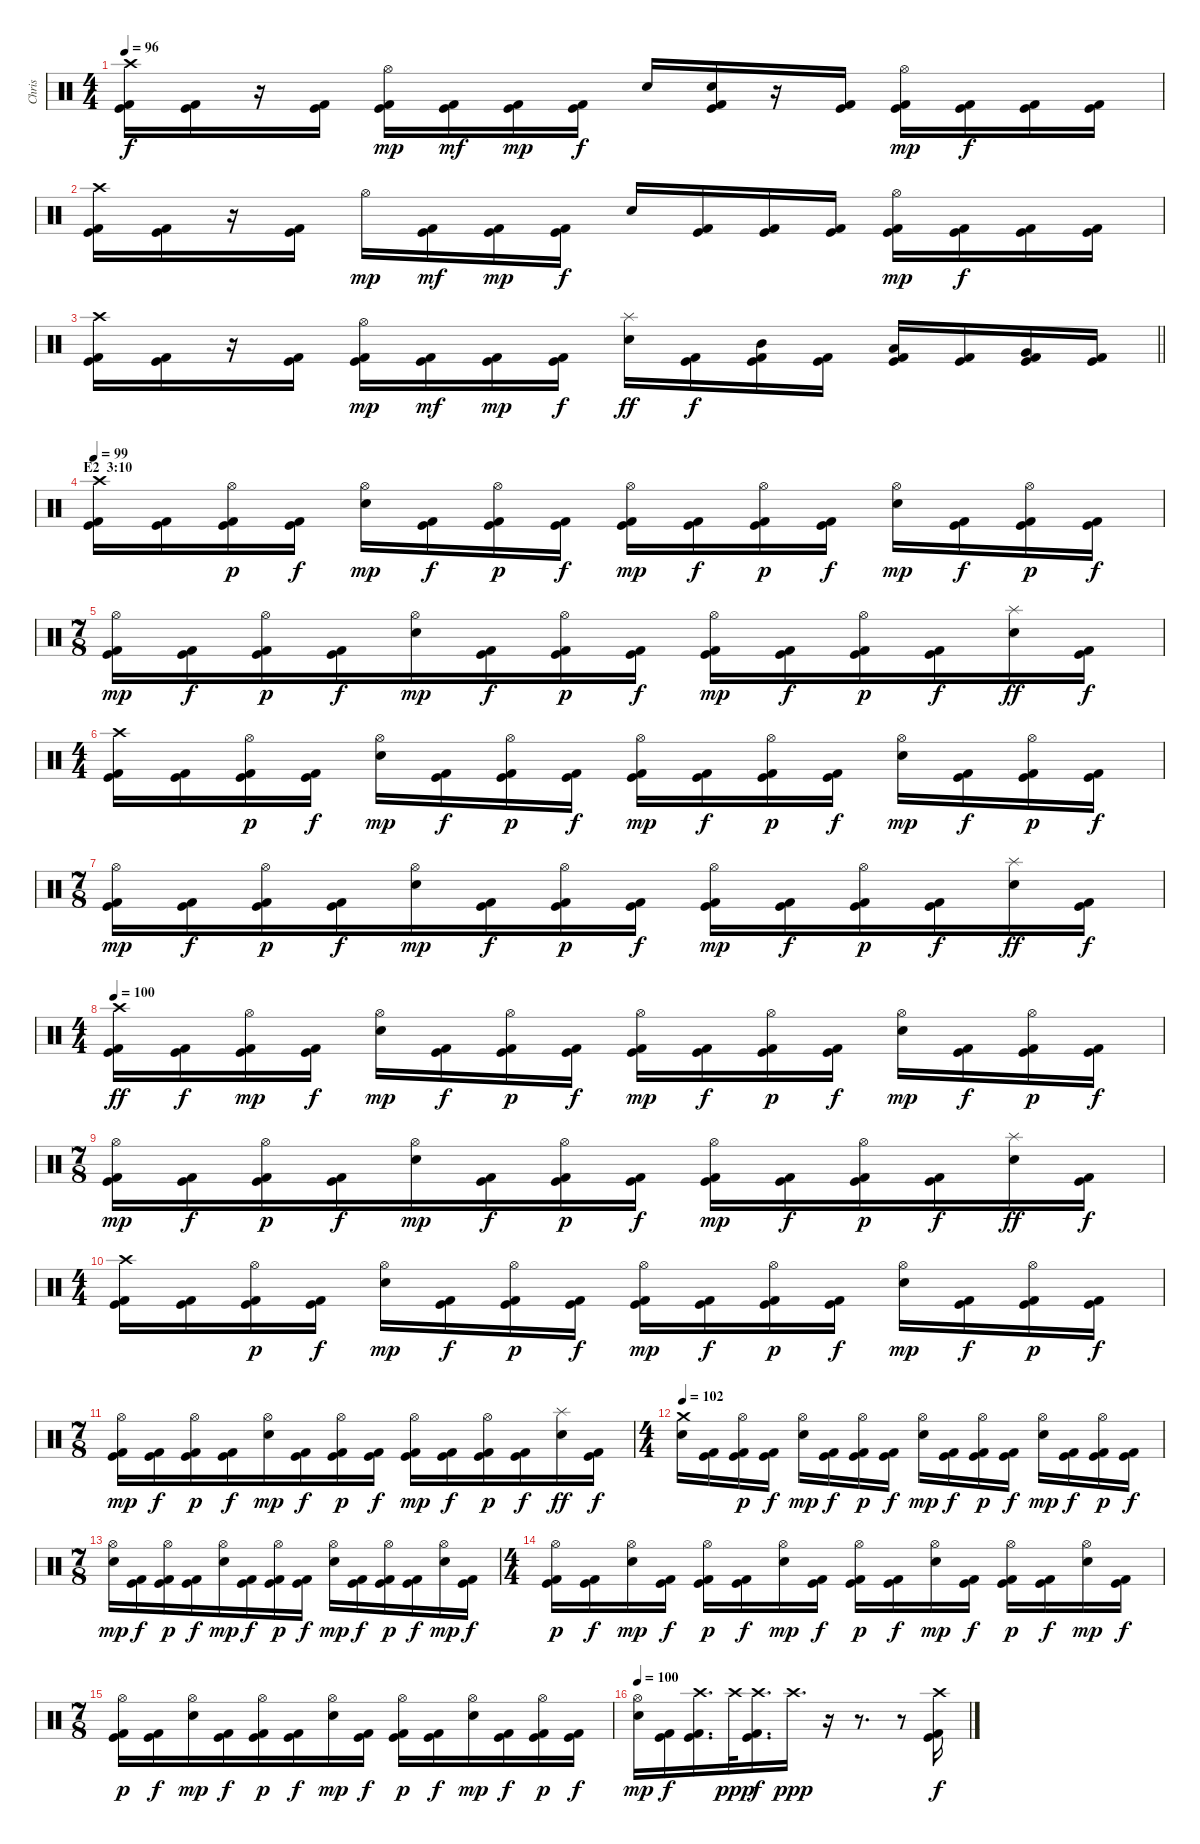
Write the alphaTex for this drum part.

\track ("Chris" "Chris") {instrument percussion}
\staff {score}
\articulation defaults
\ts (4 4)
\tempo 96
\clef neutral
\ks c
("Crash high (hit)" "Kick (hit)" "Kick (hit) 2").16{dy f} ("Kick (hit)" "Kick (hit) 2").16 r.16 ("Kick (hit)" "Kick (hit) 2").16 ("Hi-Hat (open)" "Kick (hit)" "Kick (hit) 2").16{dy mp} ("Kick (hit)" "Kick (hit) 2").16{dy mf} ("Kick (hit)" "Kick (hit) 2").16{dy mp} ("Kick (hit)" "Kick (hit) 2").16{dy f} "Electric Snare (hit)".16 ("Electric Snare (hit)" "Kick (hit)" "Kick (hit) 2").16{bd 30} r.16 ("Kick (hit)" "Kick (hit) 2").16 ("Hi-Hat (open)" "Kick (hit)" "Kick (hit) 2").16{dy mp} ("Kick (hit)" "Kick (hit) 2").16{dy f} ("Kick (hit)" "Kick (hit) 2").16 ("Kick (hit)" "Kick (hit) 2").16 |
("Crash high (hit)" "Kick (hit)" "Kick (hit) 2").16 ("Kick (hit)" "Kick (hit) 2").16 r.16 ("Kick (hit)" "Kick (hit) 2").16 "Hi-Hat (open)".16{dy mp} ("Kick (hit)" "Kick (hit) 2").16{dy mf} ("Kick (hit)" "Kick (hit) 2").16{dy mp} ("Kick (hit)" "Kick (hit) 2").16{dy f} "Electric Snare (hit)".16 ("Kick (hit)" "Kick (hit) 2").16 ("Kick (hit)" "Kick (hit) 2").16 ("Kick (hit)" "Kick (hit) 2").16 ("Hi-Hat (open)" "Kick (hit)" "Kick (hit) 2").16{dy mp} ("Kick (hit)" "Kick (hit) 2").16{dy f} ("Kick (hit)" "Kick (hit) 2").16 ("Kick (hit)" "Kick (hit) 2").16 |
\barLineRight lightlight
("Crash high (hit)" "Kick (hit)" "Kick (hit) 2").16 ("Kick (hit)" "Kick (hit) 2").16 r.16 ("Kick (hit)" "Kick (hit) 2").16 ("Hi-Hat (open)" "Kick (hit)" "Kick (hit) 2").16{dy mp} ("Kick (hit)" "Kick (hit) 2").16{dy mf} ("Kick (hit)" "Kick (hit) 2").16{dy mp} ("Kick (hit)" "Kick (hit) 2").16{dy f} ("Splash (hit)" "Electric Snare (hit)").16{dy ff} ("Kick (hit)" "Kick (hit) 2").16{dy f} ("Mid Tom (hit)" "Kick (hit)" "Kick (hit) 2").16 ("Kick (hit)" "Kick (hit) 2").16 ("Low Tom (hit)" "Kick (hit)" "Kick (hit) 2").16 ("Kick (hit)" "Kick (hit) 2").16 ("Very Low Tom (hit)" "Kick (hit)" "Kick (hit) 2").16 ("Kick (hit)" "Kick (hit) 2").16 |
\section ("" "E2  3:10")
\tempo 99
("Crash high (hit)" "Kick (hit)" "Kick (hit) 2").16 ("Kick (hit)" "Kick (hit) 2").16 ("Hi-Hat (open)" "Kick (hit)" "Kick (hit) 2").16{dy p} ("Kick (hit)" "Kick (hit) 2").16{dy f} ("Hi-Hat (open)" "Electric Snare (hit)").16{dy mp} ("Kick (hit)" "Kick (hit) 2").16{dy f} ("Hi-Hat (open)" "Kick (hit)" "Kick (hit) 2").16{dy p} ("Kick (hit)" "Kick (hit) 2").16{dy f} ("Hi-Hat (open)" "Kick (hit)" "Kick (hit) 2").16{dy mp} ("Kick (hit)" "Kick (hit) 2").16{dy f} ("Hi-Hat (open)" "Kick (hit)" "Kick (hit) 2").16{dy p} ("Kick (hit)" "Kick (hit) 2").16{dy f} ("Hi-Hat (open)" "Electric Snare (hit)").16{dy mp} ("Kick (hit)" "Kick (hit) 2").16{dy f} ("Hi-Hat (open)" "Kick (hit)" "Kick (hit) 2").16{dy p} ("Kick (hit)" "Kick (hit) 2").16{dy f} |
\ts (7 8)
("Hi-Hat (open)" "Kick (hit)" "Kick (hit) 2").16{dy mp} ("Kick (hit)" "Kick (hit) 2").16{dy f} ("Hi-Hat (open)" "Kick (hit)" "Kick (hit) 2").16{dy p} ("Kick (hit)" "Kick (hit) 2").16{dy f} ("Hi-Hat (open)" "Electric Snare (hit)").16{dy mp} ("Kick (hit)" "Kick (hit) 2").16{dy f} ("Hi-Hat (open)" "Kick (hit)" "Kick (hit) 2").16{dy p} ("Kick (hit)" "Kick (hit) 2").16{dy f} ("Hi-Hat (open)" "Kick (hit)" "Kick (hit) 2").16{dy mp} ("Kick (hit)" "Kick (hit) 2").16{dy f} ("Hi-Hat (open)" "Kick (hit)" "Kick (hit) 2").16{dy p} ("Kick (hit)" "Kick (hit) 2").16{dy f} ("Splash (hit)" "Electric Snare (hit)").16{dy ff} ("Kick (hit)" "Kick (hit) 2").16{dy f} |
\ts (4 4)
("Crash high (hit)" "Kick (hit)" "Kick (hit) 2").16 ("Kick (hit)" "Kick (hit) 2").16 ("Hi-Hat (open)" "Kick (hit)" "Kick (hit) 2").16{dy p} ("Kick (hit)" "Kick (hit) 2").16{dy f} ("Hi-Hat (open)" "Electric Snare (hit)").16{dy mp} ("Kick (hit)" "Kick (hit) 2").16{dy f} ("Hi-Hat (open)" "Kick (hit)" "Kick (hit) 2").16{dy p} ("Kick (hit)" "Kick (hit) 2").16{dy f} ("Hi-Hat (open)" "Kick (hit)" "Kick (hit) 2").16{dy mp} ("Kick (hit)" "Kick (hit) 2").16{dy f} ("Hi-Hat (open)" "Kick (hit)" "Kick (hit) 2").16{dy p} ("Kick (hit)" "Kick (hit) 2").16{dy f} ("Hi-Hat (open)" "Electric Snare (hit)").16{dy mp} ("Kick (hit)" "Kick (hit) 2").16{dy f} ("Hi-Hat (open)" "Kick (hit)" "Kick (hit) 2").16{dy p} ("Kick (hit)" "Kick (hit) 2").16{dy f} |
\ts (7 8)
("Hi-Hat (open)" "Kick (hit)" "Kick (hit) 2").16{dy mp} ("Kick (hit)" "Kick (hit) 2").16{dy f} ("Hi-Hat (open)" "Kick (hit)" "Kick (hit) 2").16{dy p} ("Kick (hit)" "Kick (hit) 2").16{dy f} ("Hi-Hat (open)" "Electric Snare (hit)").16{dy mp} ("Kick (hit)" "Kick (hit) 2").16{dy f} ("Hi-Hat (open)" "Kick (hit)" "Kick (hit) 2").16{dy p} ("Kick (hit)" "Kick (hit) 2").16{dy f} ("Hi-Hat (open)" "Kick (hit)" "Kick (hit) 2").16{dy mp} ("Kick (hit)" "Kick (hit) 2").16{dy f} ("Hi-Hat (open)" "Kick (hit)" "Kick (hit) 2").16{dy p} ("Kick (hit)" "Kick (hit) 2").16{dy f} ("Splash (hit)" "Electric Snare (hit)").16{dy ff} ("Kick (hit)" "Kick (hit) 2").16{dy f} |
\ts (4 4)
\tempo 100
("Crash high (hit)" "Kick (hit)" "Kick (hit) 2").16{dy ff} ("Kick (hit)" "Kick (hit) 2").16{dy f} ("Hi-Hat (open)" "Kick (hit)" "Kick (hit) 2").16{dy mp} ("Kick (hit)" "Kick (hit) 2").16{dy f} ("Hi-Hat (open)" "Electric Snare (hit)").16{dy mp} ("Kick (hit)" "Kick (hit) 2").16{dy f} ("Hi-Hat (open)" "Kick (hit)" "Kick (hit) 2").16{dy p} ("Kick (hit)" "Kick (hit) 2").16{dy f} ("Hi-Hat (open)" "Kick (hit)" "Kick (hit) 2").16{dy mp} ("Kick (hit)" "Kick (hit) 2").16{dy f} ("Hi-Hat (open)" "Kick (hit)" "Kick (hit) 2").16{dy p} ("Kick (hit)" "Kick (hit) 2").16{dy f} ("Hi-Hat (open)" "Electric Snare (hit)").16{dy mp} ("Kick (hit)" "Kick (hit) 2").16{dy f} ("Hi-Hat (open)" "Kick (hit)" "Kick (hit) 2").16{dy p} ("Kick (hit)" "Kick (hit) 2").16{dy f} |
\ts (7 8)
("Hi-Hat (open)" "Kick (hit)" "Kick (hit) 2").16{dy mp} ("Kick (hit)" "Kick (hit) 2").16{dy f} ("Hi-Hat (open)" "Kick (hit)" "Kick (hit) 2").16{dy p} ("Kick (hit)" "Kick (hit) 2").16{dy f} ("Hi-Hat (open)" "Electric Snare (hit)").16{dy mp} ("Kick (hit)" "Kick (hit) 2").16{dy f} ("Hi-Hat (open)" "Kick (hit)" "Kick (hit) 2").16{dy p} ("Kick (hit)" "Kick (hit) 2").16{dy f} ("Hi-Hat (open)" "Kick (hit)" "Kick (hit) 2").16{dy mp} ("Kick (hit)" "Kick (hit) 2").16{dy f} ("Hi-Hat (open)" "Kick (hit)" "Kick (hit) 2").16{dy p} ("Kick (hit)" "Kick (hit) 2").16{dy f} ("Splash (hit)" "Electric Snare (hit)").16{dy ff} ("Kick (hit)" "Kick (hit) 2").16{dy f} |
\ts (4 4)
("Crash high (hit)" "Kick (hit)" "Kick (hit) 2").16 ("Kick (hit)" "Kick (hit) 2").16 ("Hi-Hat (open)" "Kick (hit)" "Kick (hit) 2").16{dy p} ("Kick (hit)" "Kick (hit) 2").16{dy f} ("Hi-Hat (open)" "Electric Snare (hit)").16{dy mp} ("Kick (hit)" "Kick (hit) 2").16{dy f} ("Hi-Hat (open)" "Kick (hit)" "Kick (hit) 2").16{dy p} ("Kick (hit)" "Kick (hit) 2").16{dy f} ("Hi-Hat (open)" "Kick (hit)" "Kick (hit) 2").16{dy mp} ("Kick (hit)" "Kick (hit) 2").16{dy f} ("Hi-Hat (open)" "Kick (hit)" "Kick (hit) 2").16{dy p} ("Kick (hit)" "Kick (hit) 2").16{dy f} ("Hi-Hat (open)" "Electric Snare (hit)").16{dy mp} ("Kick (hit)" "Kick (hit) 2").16{dy f} ("Hi-Hat (open)" "Kick (hit)" "Kick (hit) 2").16{dy p} ("Kick (hit)" "Kick (hit) 2").16{dy f} |
\ts (7 8)
("Hi-Hat (open)" "Kick (hit)" "Kick (hit) 2").16{dy mp} ("Kick (hit)" "Kick (hit) 2").16{dy f} ("Hi-Hat (open)" "Kick (hit)" "Kick (hit) 2").16{dy p} ("Kick (hit)" "Kick (hit) 2").16{dy f} ("Hi-Hat (open)" "Electric Snare (hit)").16{dy mp} ("Kick (hit)" "Kick (hit) 2").16{dy f} ("Hi-Hat (open)" "Kick (hit)" "Kick (hit) 2").16{dy p} ("Kick (hit)" "Kick (hit) 2").16{dy f} ("Hi-Hat (open)" "Kick (hit)" "Kick (hit) 2").16{dy mp} ("Kick (hit)" "Kick (hit) 2").16{dy f} ("Hi-Hat (open)" "Kick (hit)" "Kick (hit) 2").16{dy p} ("Kick (hit)" "Kick (hit) 2").16{dy f} ("Splash (hit)" "Electric Snare (hit)").16{dy ff} ("Kick (hit)" "Kick (hit) 2").16{dy f} |
\ts (4 4)
\tempo 102
("Crash medium (hit)" "Electric Snare (hit)").16 ("Kick (hit)" "Kick (hit) 2").16 ("Hi-Hat (open)" "Kick (hit)" "Kick (hit) 2").16{dy p} ("Kick (hit)" "Kick (hit) 2").16{dy f} ("Hi-Hat (open)" "Electric Snare (hit)").16{dy mp} ("Kick (hit)" "Kick (hit) 2").16{dy f} ("Hi-Hat (open)" "Kick (hit)" "Kick (hit) 2").16{dy p} ("Kick (hit)" "Kick (hit) 2").16{dy f} ("Hi-Hat (open)" "Electric Snare (hit)").16{dy mp} ("Kick (hit)" "Kick (hit) 2").16{dy f} ("Hi-Hat (open)" "Kick (hit)" "Kick (hit) 2").16{dy p} ("Kick (hit)" "Kick (hit) 2").16{dy f} ("Hi-Hat (open)" "Electric Snare (hit)").16{dy mp} ("Kick (hit)" "Kick (hit) 2").16{dy f} ("Hi-Hat (open)" "Kick (hit)" "Kick (hit) 2").16{dy p} ("Kick (hit)" "Kick (hit) 2").16{dy f} |
\ts (7 8)
("Hi-Hat (open)" "Electric Snare (hit)").16{dy mp} ("Kick (hit)" "Kick (hit) 2").16{dy f} ("Hi-Hat (open)" "Kick (hit)" "Kick (hit) 2").16{dy p} ("Kick (hit)" "Kick (hit) 2").16{dy f} ("Hi-Hat (open)" "Electric Snare (hit)").16{dy mp} ("Kick (hit)" "Kick (hit) 2").16{dy f} ("Hi-Hat (open)" "Kick (hit)" "Kick (hit) 2").16{dy p} ("Kick (hit)" "Kick (hit) 2").16{dy f} ("Hi-Hat (open)" "Electric Snare (hit)").16{dy mp} ("Kick (hit)" "Kick (hit) 2").16{dy f} ("Hi-Hat (open)" "Kick (hit)" "Kick (hit) 2").16{dy p} ("Kick (hit)" "Kick (hit) 2").16{dy f} ("Hi-Hat (open)" "Electric Snare (hit)").16{dy mp} ("Kick (hit)" "Kick (hit) 2").16{dy f} |
\ts (4 4)
("Hi-Hat (open)" "Kick (hit)" "Kick (hit) 2").16{dy p} ("Kick (hit)" "Kick (hit) 2").16{dy f} ("Hi-Hat (open)" "Electric Snare (hit)").16{dy mp} ("Kick (hit)" "Kick (hit) 2").16{dy f} ("Hi-Hat (open)" "Kick (hit)" "Kick (hit) 2").16{dy p} ("Kick (hit)" "Kick (hit) 2").16{dy f} ("Hi-Hat (open)" "Electric Snare (hit)").16{dy mp} ("Kick (hit)" "Kick (hit) 2").16{dy f} ("Hi-Hat (open)" "Kick (hit)" "Kick (hit) 2").16{dy p} ("Kick (hit)" "Kick (hit) 2").16{dy f} ("Hi-Hat (open)" "Electric Snare (hit)").16{dy mp} ("Kick (hit)" "Kick (hit) 2").16{dy f} ("Hi-Hat (open)" "Kick (hit)" "Kick (hit) 2").16{dy p} ("Kick (hit)" "Kick (hit) 2").16{dy f} ("Hi-Hat (open)" "Electric Snare (hit)").16{dy mp} ("Kick (hit)" "Kick (hit) 2").16{dy f} |
\ts (7 8)
("Hi-Hat (open)" "Kick (hit)" "Kick (hit) 2").16{dy p} ("Kick (hit)" "Kick (hit) 2").16{dy f} ("Hi-Hat (open)" "Electric Snare (hit)").16{dy mp} ("Kick (hit)" "Kick (hit) 2").16{dy f} ("Hi-Hat (open)" "Kick (hit)" "Kick (hit) 2").16{dy p} ("Kick (hit)" "Kick (hit) 2").16{dy f} ("Hi-Hat (open)" "Electric Snare (hit)").16{dy mp} ("Kick (hit)" "Kick (hit) 2").16{dy f} ("Hi-Hat (open)" "Kick (hit)" "Kick (hit) 2").16{dy p} ("Kick (hit)" "Kick (hit) 2").16{dy f} ("Hi-Hat (open)" "Electric Snare (hit)").16{dy mp} ("Kick (hit)" "Kick (hit) 2").16{dy f} ("Hi-Hat (open)" "Kick (hit)" "Kick (hit) 2").16{dy p} ("Kick (hit)" "Kick (hit) 2").16{dy f} |
\tempo 100
("Hi-Hat (open)" "Electric Snare (hit)").16{dy mp} ("Kick (hit)" "Kick (hit) 2").16{dy f} ("Crash high (hit)" "Kick (hit)" "Kick (hit) 2").16{d} "Crash high (hit)".32{dy ppp} ("Crash high (hit)" "Kick (hit)" "Kick (hit) 2").16{d dy f} "Crash high (hit)".16{d dy ppp} r.16 r.8{d} r.8 ("Crash high (hit)" "Kick (hit)" "Kick (hit) 2").16{dy f}
